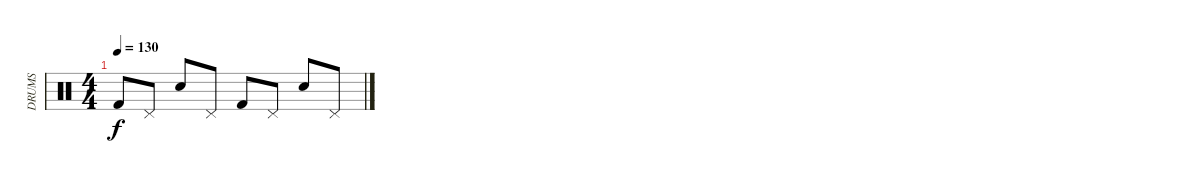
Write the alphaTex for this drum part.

\track ("DRUMS" "DRUMS") {instrument percussion}
\staff {score}
\articulation defaults
\ts (4 4)
\tempo 130
\clef neutral
\ks c "Kick (hit) 2".8{dy f} "Pedal Hi-Hat (hit)".8 "Snare (hit) 2".8 "Pedal Hi-Hat (hit)".8 "Kick (hit) 2".8 "Pedal Hi-Hat (hit)".8 "Snare (hit) 2".8 "Pedal Hi-Hat (hit)".8
